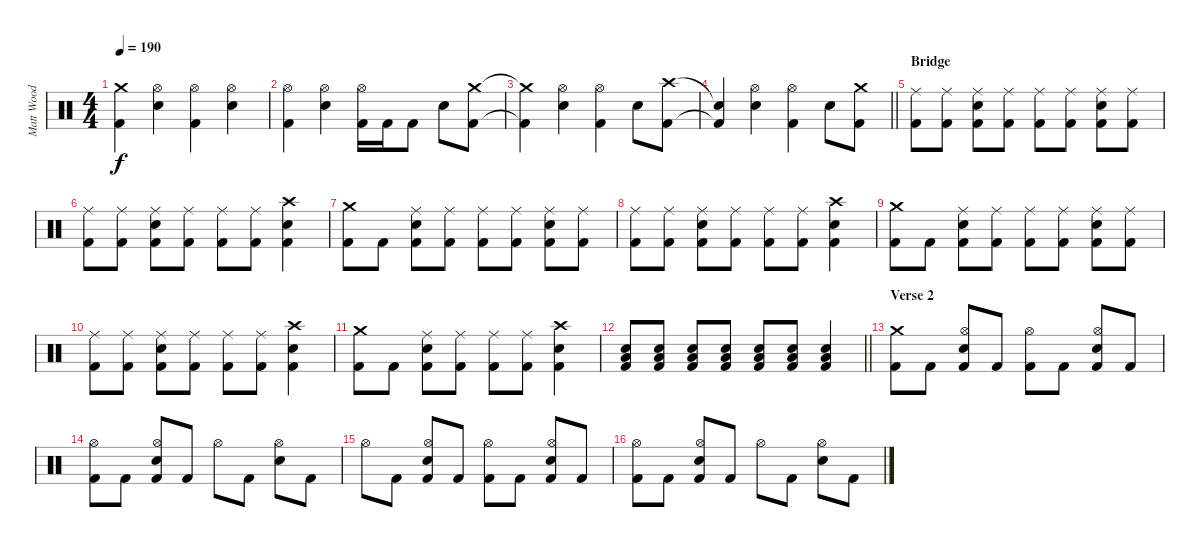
\track ("Matt Wood" "Matt Wood") {instrument percussion}
\staff {score}
\articulation defaults
\ts (4 4)
\tempo 190
\clef neutral
\ks c
("Crash medium (hit)"{t} "Kick (hit) 2"{t}).4{dy f} ("Hi-Hat (open)" "Snare (hit) 2").4 ("Hi-Hat (open)" "Kick (hit) 2").4 ("Hi-Hat (open)" "Snare (hit) 2").4 |
("Hi-Hat (open)" "Kick (hit) 2").4 ("Hi-Hat (open)" "Snare (hit) 2").4 ("Hi-Hat (open)" "Kick (hit) 2").16 "Kick (hit) 2".16 "Kick (hit) 2".8 "Snare (hit) 2".8 ("Crash medium (hit)" "Kick (hit) 2").8 |
("Crash medium (hit)"{t} "Kick (hit) 2"{t}).4 ("Hi-Hat (open)" "Snare (hit) 2").4 ("Hi-Hat (open)" "Kick (hit) 2").4 "Snare (hit) 2".8 ("Crash high (hit)" "Kick (hit) 2").8 |
\barLineRight lightlight
("Snare (hit)"{t} "Kick (hit) 2"{t}).4 ("Hi-Hat (open)" "Snare (hit) 2").4 ("Hi-Hat (open)" "Kick (hit) 2").4 "Snare (hit) 2".8 ("Crash medium (hit)" "Kick (hit) 2").8 |
\section ("" "Bridge")
("Ride (middle)" "Kick (hit) 2").8 ("Ride (middle)" "Kick (hit) 2").8 ("Ride (middle)" "Snare (hit) 2" "Kick (hit) 2").8 ("Ride (middle)" "Kick (hit) 2").8 ("Ride (middle)" "Kick (hit) 2").8 ("Ride (middle)" "Kick (hit) 2").8 ("Ride (middle)" "Snare (hit) 2" "Kick (hit) 2").8 ("Ride (middle)" "Kick (hit) 2").8 |
("Ride (middle)" "Kick (hit) 2").8 ("Ride (middle)" "Kick (hit) 2").8 ("Ride (middle)" "Snare (hit) 2" "Kick (hit) 2").8 ("Ride (middle)" "Kick (hit) 2").8 ("Ride (middle)" "Kick (hit) 2").8 ("Ride (middle)" "Kick (hit) 2").8 ("Crash high (hit)" "Snare (hit) 2" "Kick (hit) 2").4 |
("Crash medium (hit)" "Kick (hit) 2").8 "Kick (hit) 2".8 ("Ride (middle)" "Snare (hit) 2" "Kick (hit) 2").8 ("Ride (middle)" "Kick (hit) 2").8 ("Ride (middle)" "Kick (hit) 2").8 ("Ride (middle)" "Kick (hit) 2").8 ("Ride (middle)" "Snare (hit) 2" "Kick (hit) 2").8 ("Ride (middle)" "Kick (hit) 2").8 |
("Ride (middle)" "Kick (hit) 2").8 ("Ride (middle)" "Kick (hit) 2").8 ("Ride (middle)" "Snare (hit) 2" "Kick (hit) 2").8 ("Ride (middle)" "Kick (hit) 2").8 ("Ride (middle)" "Kick (hit) 2").8 ("Ride (middle)" "Kick (hit) 2").8 ("Crash high (hit)" "Snare (hit) 2" "Kick (hit) 2").4 |
("Crash medium (hit)" "Kick (hit) 2").8 "Kick (hit) 2".8 ("Ride (middle)" "Snare (hit) 2" "Kick (hit) 2").8 ("Ride (middle)" "Kick (hit) 2").8 ("Ride (middle)" "Kick (hit) 2").8 ("Ride (middle)" "Kick (hit) 2").8 ("Ride (middle)" "Snare (hit) 2" "Kick (hit) 2").8 ("Ride (middle)" "Kick (hit) 2").8 |
("Ride (middle)" "Kick (hit) 2").8 ("Ride (middle)" "Kick (hit) 2").8 ("Ride (middle)" "Snare (hit) 2" "Kick (hit) 2").8 ("Ride (middle)" "Kick (hit) 2").8 ("Ride (middle)" "Kick (hit) 2").8 ("Ride (middle)" "Kick (hit) 2").8 ("Crash high (hit)" "Snare (hit) 2" "Kick (hit) 2").4 |
("Crash medium (hit)" "Kick (hit) 2").8 "Kick (hit) 2".8 ("Ride (middle)" "Snare (hit) 2" "Kick (hit) 2").8 ("Ride (middle)" "Kick (hit) 2").8 ("Ride (middle)" "Kick (hit) 2").8 ("Ride (middle)" "Kick (hit) 2").8 ("Crash high (hit)" "Snare (hit) 2" "Kick (hit) 2").4 |
\barLineRight lightlight
("Low Tom (hit)" "Snare (hit) 2" "Kick (hit) 2").8 ("Low Tom (hit)" "Snare (hit) 2" "Kick (hit) 2").8 ("Low Tom (hit)" "Snare (hit) 2" "Kick (hit) 2").8 ("Low Tom (hit)" "Snare (hit) 2" "Kick (hit) 2").8 ("Low Tom (hit)" "Snare (hit) 2" "Kick (hit) 2").8 ("Low Tom (hit)" "Snare (hit) 2" "Kick (hit) 2").8 ("Low Tom (hit)" "Snare (hit) 2" "Kick (hit) 2").4 |
\section ("" "Verse 2")
("Crash medium (hit)" "Kick (hit) 2").8 "Kick (hit) 2".8 ("Hi-Hat (open)" "Snare (hit) 2" "Kick (hit) 2").8 "Kick (hit) 2".8 ("Hi-Hat (open)" "Kick (hit) 2").8 "Kick (hit) 2".8 ("Hi-Hat (open)" "Snare (hit) 2" "Kick (hit) 2").8 "Kick (hit) 2".8 |
("Hi-Hat (open)" "Kick (hit) 2").8 "Kick (hit) 2".8 ("Hi-Hat (open)" "Snare (hit) 2" "Kick (hit) 2").8 "Kick (hit) 2".8 "Hi-Hat (open)".8 "Kick (hit) 2".8 ("Hi-Hat (open)" "Snare (hit) 2").8 "Kick (hit) 2".8 |
"Hi-Hat (open)".8 "Kick (hit) 2".8 ("Hi-Hat (open)" "Snare (hit) 2" "Kick (hit) 2").8 "Kick (hit) 2".8 ("Hi-Hat (open)" "Kick (hit) 2").8 "Kick (hit) 2".8 ("Hi-Hat (open)" "Snare (hit) 2" "Kick (hit) 2").8 "Kick (hit) 2".8 |
("Hi-Hat (open)" "Kick (hit) 2").8 "Kick (hit) 2".8 ("Hi-Hat (open)" "Snare (hit) 2" "Kick (hit) 2").8 "Kick (hit) 2".8 "Hi-Hat (open)".8 "Kick (hit) 2".8 ("Hi-Hat (open)" "Snare (hit) 2").8 "Kick (hit) 2".8
